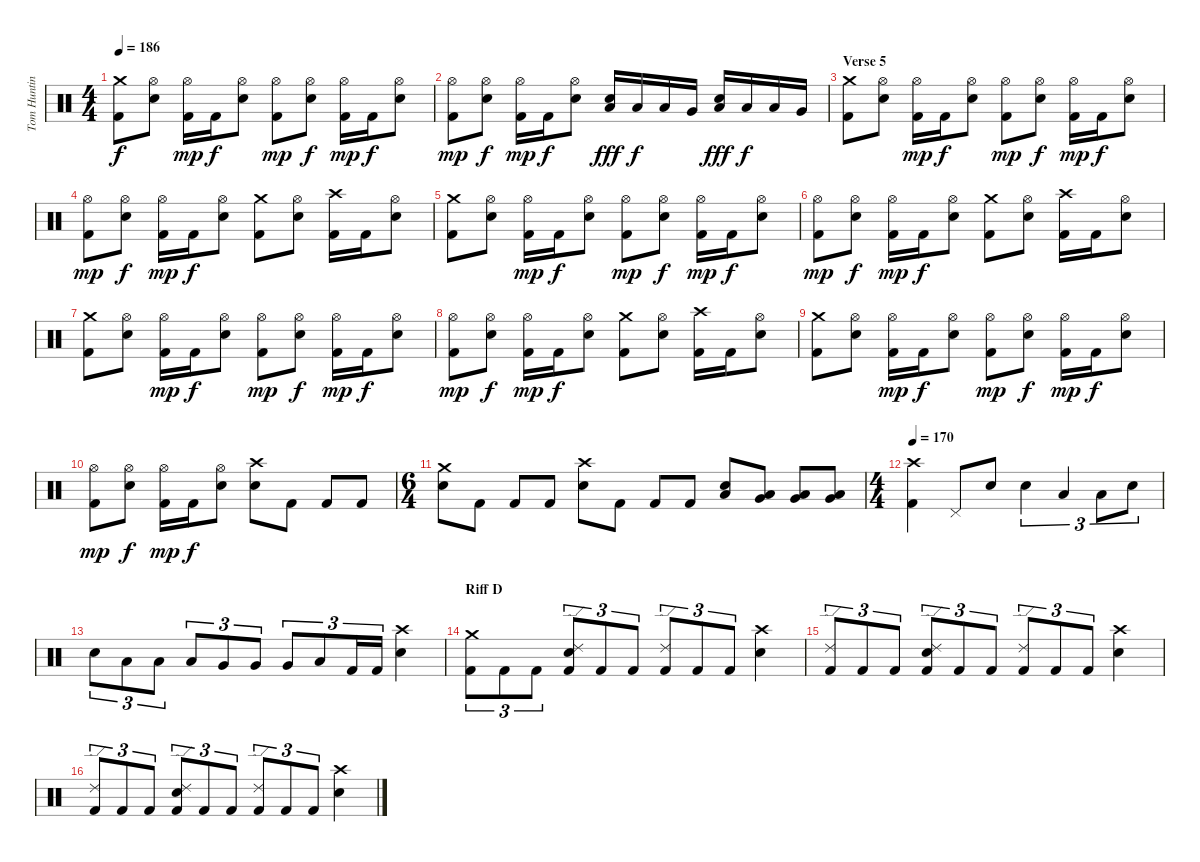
\track ("Tom Hunting" "Tom Huntin") {instrument percussion}
\staff {score}
\articulation defaults
\ts (4 4)
\tempo 186
\clef neutral
\ks c
("Kick (hit) 2" "Crash medium (hit)").8{dy f} ("Hi-Hat (open)" "Snare (hit) 2").8 ("Kick (hit) 2" "Hi-Hat (open)").16{dy mp} "Kick (hit) 2".16{dy f} ("Hi-Hat (open)" "Snare (hit) 2").8 ("Kick (hit) 2" "Hi-Hat (open)").8{dy mp} ("Hi-Hat (open)" "Snare (hit) 2").8{dy f} ("Kick (hit) 2" "Hi-Hat (open)").16{dy mp} "Kick (hit) 2".16{dy f} ("Hi-Hat (open)" "Snare (hit) 2").8 |
("Kick (hit) 2" "Hi-Hat (open)").8{dy mp} ("Hi-Hat (open)" "Snare (hit) 2").8{dy f} ("Kick (hit) 2" "Hi-Hat (open)").16{dy mp} "Kick (hit) 2".16{dy f} ("Hi-Hat (open)" "Snare (hit) 2").8 ("Snare (hit) 2" "Low Tom (hit)").16{dy fff} "Low Tom (hit)".16{dy f} "Low Tom (hit)".16 "Very Low Tom (hit)".16 ("Snare (hit) 2" "Low Tom (hit)").16{dy fff} "Low Tom (hit)".16{dy f} "Low Tom (hit)".16 "Very Low Tom (hit)".16 |
\section ("" "Verse 5")
("Kick (hit) 2" "Crash medium (hit)").8 ("Hi-Hat (open)" "Snare (hit) 2").8 ("Kick (hit) 2" "Hi-Hat (open)").16{dy mp} "Kick (hit) 2".16{dy f} ("Hi-Hat (open)" "Snare (hit) 2").8 ("Kick (hit) 2" "Hi-Hat (open)").8{dy mp} ("Hi-Hat (open)" "Snare (hit) 2").8{dy f} ("Kick (hit) 2" "Hi-Hat (open)").16{dy mp} "Kick (hit) 2".16{dy f} ("Hi-Hat (open)" "Snare (hit) 2").8 |
("Kick (hit) 2" "Hi-Hat (open)").8{dy mp} ("Hi-Hat (open)" "Snare (hit) 2").8{dy f} ("Kick (hit) 2" "Hi-Hat (open)").16{dy mp} "Kick (hit) 2".16{dy f} ("Hi-Hat (open)" "Snare (hit) 2").8 ("Kick (hit) 2" "Crash medium (hit)").8 ("Hi-Hat (open)" "Snare (hit) 2").8 ("Kick (hit) 2" "Crash high (hit)").16 "Kick (hit) 2".16 ("Hi-Hat (open)" "Snare (hit) 2").8 |
("Kick (hit) 2" "Crash medium (hit)").8 ("Hi-Hat (open)" "Snare (hit) 2").8 ("Kick (hit) 2" "Hi-Hat (open)").16{dy mp} "Kick (hit) 2".16{dy f} ("Hi-Hat (open)" "Snare (hit) 2").8 ("Kick (hit) 2" "Hi-Hat (open)").8{dy mp} ("Hi-Hat (open)" "Snare (hit) 2").8{dy f} ("Kick (hit) 2" "Hi-Hat (open)").16{dy mp} "Kick (hit) 2".16{dy f} ("Hi-Hat (open)" "Snare (hit) 2").8 |
("Kick (hit) 2" "Hi-Hat (open)").8{dy mp} ("Hi-Hat (open)" "Snare (hit) 2").8{dy f} ("Kick (hit) 2" "Hi-Hat (open)").16{dy mp} "Kick (hit) 2".16{dy f} ("Hi-Hat (open)" "Snare (hit) 2").8 ("Kick (hit) 2" "Crash medium (hit)").8 ("Hi-Hat (open)" "Snare (hit) 2").8 ("Kick (hit) 2" "Crash high (hit)").16 "Kick (hit) 2".16 ("Hi-Hat (open)" "Snare (hit) 2").8 |
("Kick (hit) 2" "Crash medium (hit)").8 ("Hi-Hat (open)" "Snare (hit) 2").8 ("Kick (hit) 2" "Hi-Hat (open)").16{dy mp} "Kick (hit) 2".16{dy f} ("Hi-Hat (open)" "Snare (hit) 2").8 ("Kick (hit) 2" "Hi-Hat (open)").8{dy mp} ("Hi-Hat (open)" "Snare (hit) 2").8{dy f} ("Kick (hit) 2" "Hi-Hat (open)").16{dy mp} "Kick (hit) 2".16{dy f} ("Hi-Hat (open)" "Snare (hit) 2").8 |
("Kick (hit) 2" "Hi-Hat (open)").8{dy mp} ("Hi-Hat (open)" "Snare (hit) 2").8{dy f} ("Kick (hit) 2" "Hi-Hat (open)").16{dy mp} "Kick (hit) 2".16{dy f} ("Hi-Hat (open)" "Snare (hit) 2").8 ("Kick (hit) 2" "Crash medium (hit)").8 ("Hi-Hat (open)" "Snare (hit) 2").8 ("Kick (hit) 2" "Crash high (hit)").16 "Kick (hit) 2".16 ("Hi-Hat (open)" "Snare (hit) 2").8 |
("Kick (hit) 2" "Crash medium (hit)").8 ("Hi-Hat (open)" "Snare (hit) 2").8 ("Kick (hit) 2" "Hi-Hat (open)").16{dy mp} "Kick (hit) 2".16{dy f} ("Hi-Hat (open)" "Snare (hit) 2").8 ("Kick (hit) 2" "Hi-Hat (open)").8{dy mp} ("Hi-Hat (open)" "Snare (hit) 2").8{dy f} ("Kick (hit) 2" "Hi-Hat (open)").16{dy mp} "Kick (hit) 2".16{dy f} ("Hi-Hat (open)" "Snare (hit) 2").8 |
("Kick (hit) 2" "Hi-Hat (open)").8{dy mp} ("Hi-Hat (open)" "Snare (hit) 2").8{dy f} ("Kick (hit) 2" "Hi-Hat (open)").16{dy mp} "Kick (hit) 2".16{dy f} ("Hi-Hat (open)" "Snare (hit) 2").8 ("Crash high (hit)" "Snare (hit) 2").8 "Kick (hit) 2".8 "Kick (hit) 2".8 "Kick (hit) 2".8 |
\ts (6 4)
("Crash medium (hit)" "Snare (hit) 2").8 "Kick (hit) 2".8 "Kick (hit) 2".8 "Kick (hit) 2".8 ("Crash high (hit)" "Snare (hit) 2").8 "Kick (hit) 2".8 "Kick (hit) 2".8 "Kick (hit) 2".8 ("Low Tom (hit)" "Snare (hit) 2").8 ("Very Low Tom (hit)" "Low Tom (hit)").8 ("Very Low Tom (hit)" "Low Tom (hit)").8 ("Very Low Tom (hit)" "Low Tom (hit)").8 |
\ts (4 4)
\tempo 170
("Kick (hit) 2" "Crash high (hit)").4 "Pedal Hi-Hat (hit)".8 "Snare (hit) 2".8 "Snare (hit) 2".4{tu (3 2)} "Low Tom (hit)".4{tu (3 2)} "Low Tom (hit)".8{tu (3 2)} "Snare (hit) 2".8{tu (3 2)} |
"Snare (hit) 2".8{tu (3 2)} "Low Tom (hit)".8{tu (3 2)} "Low Tom (hit)".8{tu (3 2)} "Low Tom (hit)".8{tu (3 2)} "Very Low Tom (hit)".8{tu (3 2)} "Very Low Tom (hit)".8{tu (3 2)} "Very Low Tom (hit)".8{tu (3 2)} "Low Floor Tom (hit)".8{tu (3 2)} "Kick (hit) 2".16{tu (3 2)} "Kick (hit) 2".16{tu (3 2)} ("Crash high (hit)" "Snare (hit) 2").4 |
\section ("" "Riff D")
("Kick (hit) 2" "Crash medium (hit)").8{tu (3 2)} "Kick (hit) 2".8{tu (3 2)} "Kick (hit) 2".8{tu (3 2)} ("Kick (hit) 2" "Ride (edge) 2" "Snare (hit) 2").8{tu (3 2)} "Kick (hit) 2".8{tu (3 2)} "Kick (hit) 2".8{tu (3 2)} ("Kick (hit) 2" "Ride (edge) 2").8{tu (3 2)} "Kick (hit) 2".8{tu (3 2)} "Kick (hit) 2".8{tu (3 2)} ("Crash high (hit)" "Snare (hit) 2").4 |
("Kick (hit) 2" "Ride (edge) 2").8{tu (3 2)} "Kick (hit) 2".8{tu (3 2)} "Kick (hit) 2".8{tu (3 2)} ("Kick (hit) 2" "Ride (edge) 2" "Snare (hit) 2").8{tu (3 2)} "Kick (hit) 2".8{tu (3 2)} "Kick (hit) 2".8{tu (3 2)} ("Kick (hit) 2" "Ride (edge) 2").8{tu (3 2)} "Kick (hit) 2".8{tu (3 2)} "Kick (hit) 2".8{tu (3 2)} ("Crash high (hit)" "Snare (hit) 2").4 |
("Kick (hit) 2" "Ride (edge) 2").8{tu (3 2)} "Kick (hit) 2".8{tu (3 2)} "Kick (hit) 2".8{tu (3 2)} ("Kick (hit) 2" "Ride (edge) 2" "Snare (hit) 2").8{tu (3 2)} "Kick (hit) 2".8{tu (3 2)} "Kick (hit) 2".8{tu (3 2)} ("Kick (hit) 2" "Ride (edge) 2").8{tu (3 2)} "Kick (hit) 2".8{tu (3 2)} "Kick (hit) 2".8{tu (3 2)} ("Crash high (hit)" "Snare (hit) 2").4
